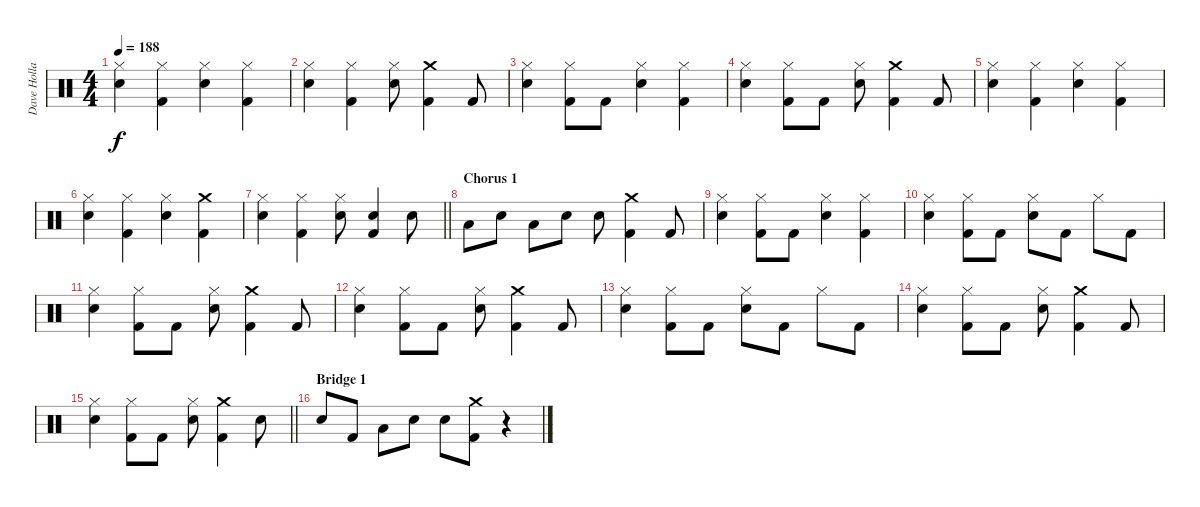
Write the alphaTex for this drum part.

\track ("Dave Holland" "Dave Holla") {instrument percussion}
\staff {score}
\articulation defaults
\ts (4 4)
\tempo 188
\clef neutral
\ks c
("Snare (hit) 2" "Hi-Hat (closed)").4{dy f} ("Kick (hit) 2" "Hi-Hat (closed)").4 ("Snare (hit) 2" "Hi-Hat (closed)").4 ("Kick (hit) 2" "Hi-Hat (closed)").4 |
("Snare (hit) 2" "Hi-Hat (closed)").4 ("Kick (hit) 2" "Hi-Hat (closed)").4 ("Snare (hit) 2" "Hi-Hat (closed)").8 ("Kick (hit) 2" "Crash medium (hit)").4 "Kick (hit) 2".8 |
("Snare (hit) 2" "Hi-Hat (closed)").4 ("Kick (hit) 2" "Hi-Hat (closed)").8 "Kick (hit) 2".8 ("Snare (hit) 2" "Hi-Hat (closed)").4 ("Kick (hit) 2" "Hi-Hat (closed)").4 |
("Snare (hit) 2" "Hi-Hat (closed)").4 ("Kick (hit) 2" "Hi-Hat (closed)").8 "Kick (hit) 2".8 ("Snare (hit) 2" "Hi-Hat (closed)").8 ("Kick (hit) 2" "Crash medium (hit)").4 "Kick (hit) 2".8 |
("Snare (hit) 2" "Hi-Hat (closed)").4 ("Kick (hit) 2" "Hi-Hat (closed)").4 ("Snare (hit) 2" "Hi-Hat (closed)").4 ("Kick (hit) 2" "Hi-Hat (closed)").4 |
("Snare (hit) 2" "Hi-Hat (closed)").4 ("Kick (hit) 2" "Hi-Hat (closed)").4 ("Snare (hit) 2" "Hi-Hat (closed)").4 ("Kick (hit) 2" "Crash medium (hit)").4 |
\barLineRight lightlight
("Snare (hit) 2" "Hi-Hat (closed)").4 ("Kick (hit) 2" "Hi-Hat (closed)").4 ("Snare (hit) 2" "Hi-Hat (closed)").8 ("Kick (hit) 2" "Snare (hit) 2").4 "Snare (hit) 2".8 |
\section ("" "Chorus 1")
"Low Tom (hit)".8 "Snare (hit) 2".8 "Low Tom (hit)".8 "Snare (hit) 2".8 "Snare (hit) 2".8 ("Crash medium (hit)" "Kick (hit) 2").4 "Kick (hit) 2".8 |
("Snare (hit) 2" "Hi-Hat (closed)").4 ("Kick (hit) 2" "Hi-Hat (closed)").8 "Kick (hit) 2".8 ("Snare (hit) 2" "Hi-Hat (closed)").4 ("Kick (hit) 2" "Hi-Hat (closed)").4 |
("Snare (hit) 2" "Hi-Hat (closed)").4 ("Kick (hit) 2" "Hi-Hat (closed)").8 "Kick (hit) 2".8 ("Snare (hit) 2" "Hi-Hat (closed)").8 "Kick (hit) 2".8 "Hi-Hat (closed)".8 "Kick (hit) 2".8 |
("Snare (hit) 2" "Hi-Hat (closed)").4 ("Kick (hit) 2" "Hi-Hat (closed)").8 "Kick (hit) 2".8 ("Snare (hit) 2" "Hi-Hat (closed)").8 ("Kick (hit) 2" "Crash medium (hit)").4 "Kick (hit) 2".8 |
("Snare (hit) 2" "Hi-Hat (closed)").4 ("Kick (hit) 2" "Hi-Hat (closed)").8 "Kick (hit) 2".8 ("Snare (hit) 2" "Hi-Hat (closed)").8 ("Kick (hit) 2" "Crash medium (hit)").4 "Kick (hit) 2".8 |
("Snare (hit) 2" "Hi-Hat (closed)").4 ("Kick (hit) 2" "Hi-Hat (closed)").8 "Kick (hit) 2".8 ("Snare (hit) 2" "Hi-Hat (closed)").8 "Kick (hit) 2".8 "Hi-Hat (closed)".8 "Kick (hit) 2".8 |
("Snare (hit) 2" "Hi-Hat (closed)").4 ("Kick (hit) 2" "Hi-Hat (closed)").8 "Kick (hit) 2".8 ("Snare (hit) 2" "Hi-Hat (closed)").8 ("Kick (hit) 2" "Crash medium (hit)").4 "Kick (hit) 2".8 |
\barLineRight lightlight
("Snare (hit) 2" "Hi-Hat (closed)").4 ("Kick (hit) 2" "Hi-Hat (closed)").8 "Kick (hit) 2".8 ("Snare (hit) 2" "Hi-Hat (closed)").8 ("Kick (hit) 2" "Crash medium (hit)").4 "Snare (hit) 2".8 |
\section ("" "Bridge 1")
"Snare (hit) 2".8 "Kick (hit) 2".8 "Low Tom (hit)".8 "Snare (hit) 2".8 "Snare (hit) 2".8 ("Kick (hit) 2" "Crash medium (hit)").8 r.4
